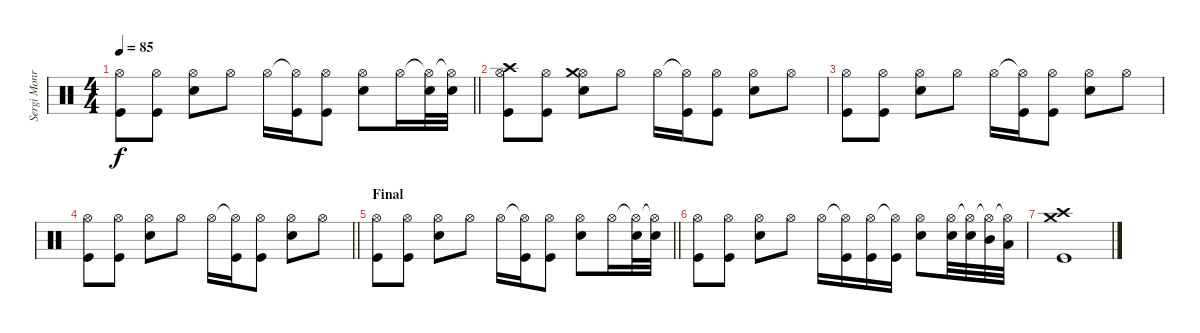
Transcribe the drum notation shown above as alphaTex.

\track ("Sergi Monroy" "Sergi Monr") {instrument percussion}
\staff {score}
\articulation defaults
\ts (4 4)
\tempo 85
\clef neutral
\barLineRight lightlight
\ks c
("Hi-Hat (open)" "Kick (hit)").8{dy f} ("Hi-Hat (open)" "Kick (hit)").8 ("Hi-Hat (open)" "Electric Snare (hit)").8 "Hi-Hat (open)".8 "Hi-Hat (open)".16 ("Hi-Hat (open)"{t} "Kick (hit)").16 ("Hi-Hat (open)" "Kick (hit)").8 ("Hi-Hat (open)" "Electric Snare (hit)").8 "Hi-Hat (open)".16 ("Hi-Hat (open)"{t} "Electric Snare (hit)").32 ("Hi-Hat (open)"{t} "Electric Snare (hit)").32 |
("Hi-Hat (open)" "Kick (hit)" "Crash high (hit)").8 ("Hi-Hat (open)" "Kick (hit)").8 ("Hi-Hat (open)" "Electric Snare (hit)" "Crash medium (hit)").8 "Hi-Hat (open)".8 "Hi-Hat (open)".16 ("Hi-Hat (open)"{t} "Kick (hit)").16 ("Hi-Hat (open)" "Kick (hit)").8 ("Hi-Hat (open)" "Electric Snare (hit)").8 "Hi-Hat (open)".8 |
("Hi-Hat (open)" "Kick (hit)").8 ("Hi-Hat (open)" "Kick (hit)").8 ("Hi-Hat (open)" "Electric Snare (hit)").8 "Hi-Hat (open)".8 "Hi-Hat (open)".16 ("Hi-Hat (open)"{t} "Kick (hit)").16 ("Hi-Hat (open)" "Kick (hit)").8 ("Hi-Hat (open)" "Electric Snare (hit)").8 "Hi-Hat (open)".8 |
\barLineRight lightlight
("Hi-Hat (open)" "Kick (hit)").8 ("Hi-Hat (open)" "Kick (hit)").8 ("Hi-Hat (open)" "Electric Snare (hit)").8 "Hi-Hat (open)".8 "Hi-Hat (open)".16 ("Hi-Hat (open)"{t} "Kick (hit)").16 ("Hi-Hat (open)" "Kick (hit)").8 ("Hi-Hat (open)" "Electric Snare (hit)").8 "Hi-Hat (open)".8 |
\section ("" "Final")
\barLineRight lightlight
("Hi-Hat (open)" "Kick (hit)").8 ("Hi-Hat (open)" "Kick (hit)").8 ("Hi-Hat (open)" "Electric Snare (hit)").8 "Hi-Hat (open)".8 "Hi-Hat (open)".16 ("Hi-Hat (open)"{t} "Kick (hit)").16 ("Hi-Hat (open)" "Kick (hit)").8 ("Hi-Hat (open)" "Electric Snare (hit)").8 "Hi-Hat (open)".16 ("Hi-Hat (open)"{t} "Electric Snare (hit)").32 ("Hi-Hat (open)"{t} "Electric Snare (hit)").32 |
("Hi-Hat (open)" "Kick (hit)").8 ("Hi-Hat (open)" "Kick (hit)").8 ("Hi-Hat (open)" "Electric Snare (hit)").8 "Hi-Hat (open)".8 "Hi-Hat (open)".16 ("Hi-Hat (open)"{t} "Kick (hit)").16 ("Hi-Hat (open)" "Kick (hit)").16 ("Hi-Hat (open)"{t} "Kick (hit)").16 ("Hi-Hat (open)" "Electric Snare (hit)").8 ("Hi-Hat (open)" "Electric Snare (hit)").32 ("Hi-Hat (open)"{t} "Electric Snare (hit)").32 ("Hi-Hat (open)"{t} "Mid Tom (hit)").32 ("Hi-Hat (open)"{t} "Low Tom (hit)").32 |
("Kick (hit)" "Crash medium (hit)" "Crash high (hit)").1
